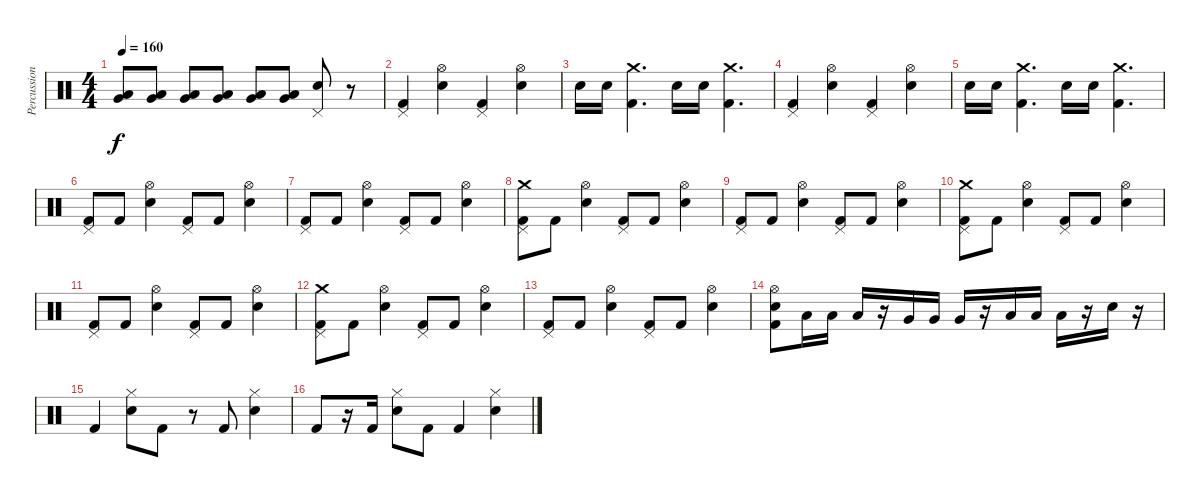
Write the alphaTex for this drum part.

\track ("Percussion" "Percussion") {instrument percussion}
\staff {score}
\articulation defaults
\ts (4 4)
\tempo 160
\clef neutral
\ks c
("Very Low Tom (hit)" "Low Floor Tom (hit)").8{dy f} ("Very Low Tom (hit)" "Low Floor Tom (hit)").8 ("Very Low Tom (hit)" "Low Floor Tom (hit)").8 ("Very Low Tom (hit)" "Low Floor Tom (hit)").8 ("Very Low Tom (hit)" "Low Floor Tom (hit)").8 ("Very Low Tom (hit)" "Low Floor Tom (hit)").8 ("Pedal Hi-Hat (hit)" "Snare (hit) 2").8 r.8 |
("Pedal Hi-Hat (hit)" "Kick (hit) 2").4 ("Hi-Hat (open)" "Snare (hit) 2").4 ("Pedal Hi-Hat (hit)" "Kick (hit) 2").4 ("Hi-Hat (open)" "Snare (hit) 2").4 |
"Snare (hit) 2".16 "Snare (hit) 2".16 ("Crash medium (hit)" "Kick (hit) 2").4{d} "Snare (hit) 2".16 "Snare (hit) 2".16 ("Crash medium (hit)" "Kick (hit) 2").4{d} |
("Pedal Hi-Hat (hit)" "Kick (hit) 2").4 ("Hi-Hat (open)" "Snare (hit) 2").4 ("Pedal Hi-Hat (hit)" "Kick (hit) 2").4 ("Hi-Hat (open)" "Snare (hit) 2").4 |
"Snare (hit) 2".16 "Snare (hit) 2".16 ("Crash medium (hit)" "Kick (hit) 2").4{d} "Snare (hit) 2".16 "Snare (hit) 2".16 ("Crash medium (hit)" "Kick (hit) 2").4{d} |
("Pedal Hi-Hat (hit)" "Kick (hit) 2").8 "Kick (hit) 2".8 ("Hi-Hat (open)" "Snare (hit) 2").4 ("Pedal Hi-Hat (hit)" "Kick (hit) 2").8 "Kick (hit) 2".8 ("Hi-Hat (open)" "Snare (hit) 2").4 |
("Pedal Hi-Hat (hit)" "Kick (hit) 2").8 "Kick (hit) 2".8 ("Hi-Hat (open)" "Snare (hit) 2").4 ("Pedal Hi-Hat (hit)" "Kick (hit) 2").8 "Kick (hit) 2".8 ("Hi-Hat (open)" "Snare (hit) 2").4 |
("Crash medium (hit)" "Pedal Hi-Hat (hit)" "Kick (hit) 2").8 "Kick (hit) 2".8 ("Hi-Hat (open)" "Snare (hit) 2").4 ("Pedal Hi-Hat (hit)" "Kick (hit) 2").8 "Kick (hit) 2".8 ("Hi-Hat (open)" "Snare (hit) 2").4 |
("Pedal Hi-Hat (hit)" "Kick (hit) 2").8 "Kick (hit) 2".8 ("Hi-Hat (open)" "Snare (hit) 2").4 ("Pedal Hi-Hat (hit)" "Kick (hit) 2").8 "Kick (hit) 2".8 ("Hi-Hat (open)" "Snare (hit) 2").4 |
("Crash medium (hit)" "Pedal Hi-Hat (hit)" "Kick (hit) 2").8 "Kick (hit) 2".8 ("Hi-Hat (open)" "Snare (hit) 2").4 ("Pedal Hi-Hat (hit)" "Kick (hit) 2").8 "Kick (hit) 2".8 ("Hi-Hat (open)" "Snare (hit) 2").4 |
("Pedal Hi-Hat (hit)" "Kick (hit) 2").8 "Kick (hit) 2".8 ("Hi-Hat (open)" "Snare (hit) 2").4 ("Pedal Hi-Hat (hit)" "Kick (hit) 2").8 "Kick (hit) 2".8 ("Hi-Hat (open)" "Snare (hit) 2").4 |
("Crash medium (hit)" "Pedal Hi-Hat (hit)" "Kick (hit) 2").8 "Kick (hit) 2".8 ("Hi-Hat (open)" "Snare (hit) 2").4 ("Pedal Hi-Hat (hit)" "Kick (hit) 2").8 "Kick (hit) 2".8 ("Hi-Hat (open)" "Snare (hit) 2").4 |
("Pedal Hi-Hat (hit)" "Kick (hit) 2").8 "Kick (hit) 2".8 ("Hi-Hat (open)" "Snare (hit) 2").4 ("Pedal Hi-Hat (hit)" "Kick (hit) 2").8 "Kick (hit) 2".8 ("Hi-Hat (open)" "Snare (hit) 2").4 |
("Hi-Hat (open)" "Kick (hit) 2" "Snare (hit) 2").8 "Low Tom (hit)".16 "Low Tom (hit)".16 "Low Tom (hit)".16 r.16 "Very Low Tom (hit)".16 "Very Low Tom (hit)".16 "Very Low Tom (hit)".16 r.16 "Low Floor Tom (hit)".16 "Low Floor Tom (hit)".16 "Low Floor Tom (hit)".16 r.16 "Snare (hit) 2".16 r.16 |
"Kick (hit) 2".4 ("Hi-Hat (closed)" "Snare (hit) 2").8 "Kick (hit) 2".8 r.8 "Kick (hit) 2".8 ("Hi-Hat (closed)" "Snare (hit) 2").4 |
"Kick (hit) 2".8 r.16 "Kick (hit) 2".16 ("Hi-Hat (closed)" "Snare (hit) 2").8 "Kick (hit) 2".8 "Kick (hit) 2".4 ("Hi-Hat (closed)" "Snare (hit) 2").4
